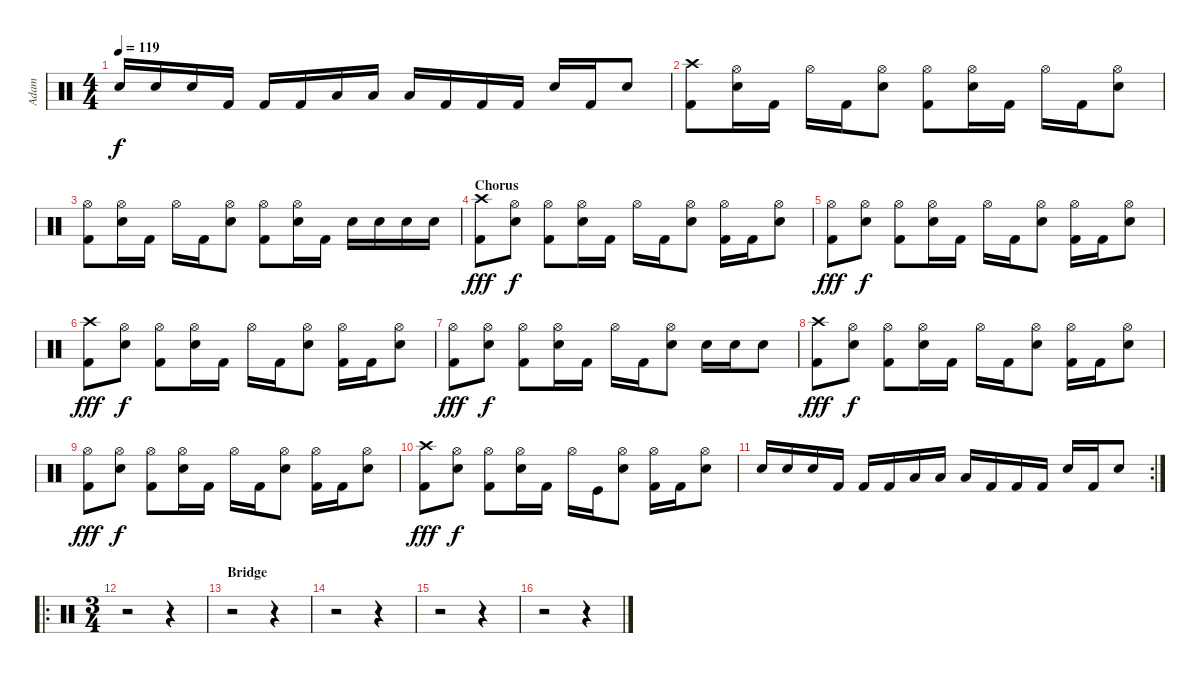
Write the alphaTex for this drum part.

\track ("Adam" "Adam") {instrument percussion}
\staff {score}
\articulation defaults
\ts (4 4)
\tempo 119
\clef neutral
\ks c "Electric Snare (hit)".16{dy f} "Electric Snare (hit)".16 "Electric Snare (hit)".16 "Kick (hit) 2".16 "Kick (hit) 2".16 "Kick (hit) 2".16 "Low Tom (hit)".16 "Low Tom (hit)".16 "Low Tom (hit)".16 "Kick (hit) 2".16 "Kick (hit) 2".16 "Kick (hit) 2".16 "Electric Snare (hit)".16 "Kick (hit) 2".16 "Electric Snare (hit)".8
|
("Crash high (hit)" "Kick (hit) 2").8 ("Hi-Hat (open)" "Electric Snare (hit)").16 "Kick (hit) 2".16 "Hi-Hat (open)".16 "Kick (hit) 2".16 ("Hi-Hat (open)" "Electric Snare (hit)").8 ("Hi-Hat (open)" "Kick (hit) 2").8 ("Hi-Hat (open)" "Electric Snare (hit)").16 "Kick (hit) 2".16 "Hi-Hat (open)".16 "Kick (hit) 2".16 ("Hi-Hat (open)" "Electric Snare (hit)").8 |
("Hi-Hat (open)" "Kick (hit) 2").8 ("Hi-Hat (open)" "Electric Snare (hit)").16 "Kick (hit) 2".16 "Hi-Hat (open)".16 "Kick (hit) 2".16 ("Hi-Hat (open)" "Electric Snare (hit)").8 ("Hi-Hat (open)" "Kick (hit) 2").8 ("Hi-Hat (open)" "Electric Snare (hit)").16 "Kick (hit) 2".16 "Electric Snare (hit)".16 "Electric Snare (hit)".16 "Electric Snare (hit)".16 "Electric Snare (hit)".16 |
\section ("" "Chorus")
("Crash high (hit)" "Kick (hit) 2").8{dy fff} ("Hi-Hat (open)" "Electric Snare (hit)").8{dy f} ("Hi-Hat (open)" "Kick (hit) 2").8 ("Hi-Hat (open)" "Electric Snare (hit)").16 "Kick (hit) 2".16 "Hi-Hat (open)".16 "Kick (hit) 2".16 ("Hi-Hat (open)" "Electric Snare (hit)").8 ("Hi-Hat (open)" "Kick (hit) 2").16 "Kick (hit) 2".16 ("Hi-Hat (open)" "Electric Snare (hit)").8 |
("Hi-Hat (open)" "Kick (hit) 2").8{dy fff} ("Hi-Hat (open)" "Electric Snare (hit)").8{dy f} ("Hi-Hat (open)" "Kick (hit) 2").8 ("Hi-Hat (open)" "Electric Snare (hit)").16 "Kick (hit) 2".16 "Hi-Hat (open)".16 "Kick (hit) 2".16 ("Hi-Hat (open)" "Electric Snare (hit)").8 ("Hi-Hat (open)" "Kick (hit) 2").16 "Kick (hit) 2".16 ("Hi-Hat (open)" "Electric Snare (hit)").8 |
("Crash high (hit)" "Kick (hit) 2").8{dy fff} ("Hi-Hat (open)" "Electric Snare (hit)").8{dy f} ("Hi-Hat (open)" "Kick (hit) 2").8 ("Hi-Hat (open)" "Electric Snare (hit)").16 "Kick (hit) 2".16 "Hi-Hat (open)".16 "Kick (hit) 2".16 ("Hi-Hat (open)" "Electric Snare (hit)").8 ("Hi-Hat (open)" "Kick (hit) 2").16 "Kick (hit) 2".16 ("Hi-Hat (open)" "Electric Snare (hit)").8 |
("Hi-Hat (open)" "Kick (hit) 2").8{dy fff} ("Hi-Hat (open)" "Electric Snare (hit)").8{dy f} ("Hi-Hat (open)" "Kick (hit) 2").8 ("Hi-Hat (open)" "Electric Snare (hit)").16 "Kick (hit) 2".16 "Hi-Hat (open)".16 "Kick (hit) 2".16 ("Hi-Hat (open)" "Electric Snare (hit)").8 "Electric Snare (hit)".16 "Electric Snare (hit)".16 "Electric Snare (hit)".8 |
("Crash high (hit)" "Kick (hit) 2").8{dy fff} ("Hi-Hat (open)" "Electric Snare (hit)").8{dy f} ("Hi-Hat (open)" "Kick (hit) 2").8 ("Hi-Hat (open)" "Electric Snare (hit)").16 "Kick (hit) 2".16 "Hi-Hat (open)".16 "Kick (hit) 2".16 ("Hi-Hat (open)" "Electric Snare (hit)").8 ("Hi-Hat (open)" "Kick (hit) 2").16 "Kick (hit) 2".16 ("Hi-Hat (open)" "Electric Snare (hit)").8 |
("Hi-Hat (open)" "Kick (hit) 2").8{dy fff} ("Hi-Hat (open)" "Electric Snare (hit)").8{dy f} ("Hi-Hat (open)" "Kick (hit) 2").8 ("Hi-Hat (open)" "Electric Snare (hit)").16 "Kick (hit) 2".16 "Hi-Hat (open)".16 "Kick (hit) 2".16 ("Hi-Hat (open)" "Electric Snare (hit)").8 ("Hi-Hat (open)" "Kick (hit) 2").16 "Kick (hit) 2".16 ("Hi-Hat (open)" "Electric Snare (hit)").8 |
("Crash high (hit)" "Kick (hit) 2").8{dy fff} ("Hi-Hat (open)" "Electric Snare (hit)").8{dy f} ("Hi-Hat (open)" "Kick (hit) 2").8 ("Hi-Hat (open)" "Electric Snare (hit)").16 "Kick (hit) 2".16 "Hi-Hat (open)".16 "Kick (hit)".16 ("Hi-Hat (open)" "Electric Snare (hit)").8 ("Hi-Hat (open)" "Kick (hit) 2").16 "Kick (hit) 2".16 ("Hi-Hat (open)" "Electric Snare (hit)").8 |
\rc 2 "Electric Snare (hit)".16 "Electric Snare (hit)".16 "Electric Snare (hit)".16 "Kick (hit) 2".16 "Kick (hit) 2".16 "Kick (hit) 2".16 "Low Tom (hit)".16 "Low Tom (hit)".16 "Low Tom (hit)".16 "Kick (hit) 2".16 "Kick (hit) 2".16 "Kick (hit) 2".16 "Electric Snare (hit)".16 "Kick (hit) 2".16 "Electric Snare (hit)".8
|
\ro
\ts (3 4)
r.2 r.4 |
\section ("" "Bridge")
r.2 r.4 |
r.2 r.4 |
r.2 r.4 |
r.2 r.4
